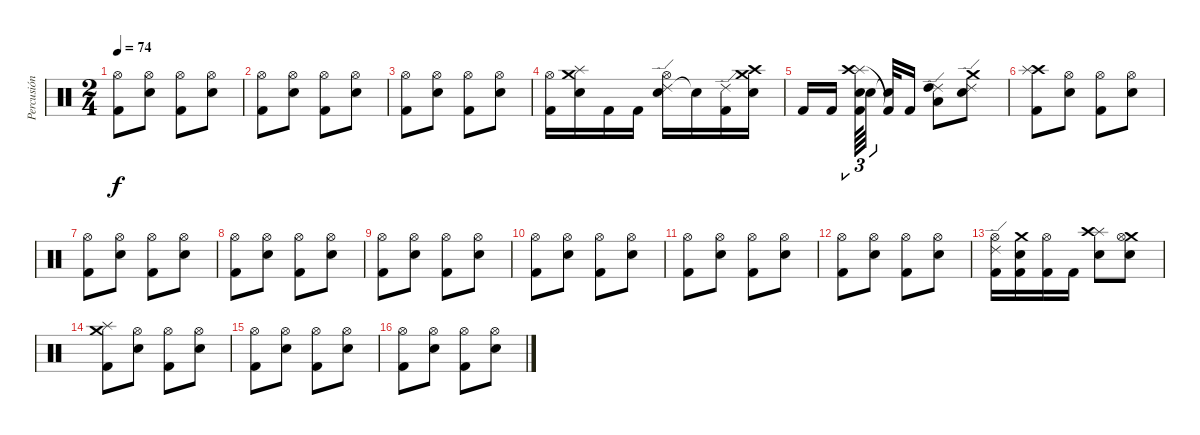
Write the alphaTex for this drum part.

\track ("Percusión" "Percusión") {instrument percussion}
\staff {score}
\articulation defaults
\ts (2 4)
\tempo 74
\clef neutral
\ks c
("Hi-Hat (open)" "Kick (hit) 2").8{dy f} ("Hi-Hat (open)" "Electric Snare (hit)").8 ("Hi-Hat (open)" "Kick (hit) 2").8 ("Hi-Hat (open)" "Electric Snare (hit)").8 |
("Hi-Hat (open)" "Kick (hit) 2").8 ("Hi-Hat (open)" "Electric Snare (hit)").8 ("Hi-Hat (open)" "Kick (hit) 2").8 ("Hi-Hat (open)" "Electric Snare (hit)").8 |
("Hi-Hat (open)" "Kick (hit) 2").8 ("Hi-Hat (open)" "Electric Snare (hit)").8 ("Hi-Hat (open)" "Kick (hit) 2").8 ("Hi-Hat (open)" "Electric Snare (hit)").8 |
("Hi-Hat (open)" "Kick (hit) 2").16 ("Crash medium (hit)" "Splash (hit)" "Electric Snare (hit)").16 "Kick (hit) 2".16 "Kick (hit) 2".16 ("Ride (edge) 2" "Hi-Hat (open)" "Electric Snare (hit)").16 "Snare (hit)"{t}.16 ("Ride (edge) 2" "Kick (hit) 2").16 ("Crash medium (hit)" "Crash high (hit)" "Electric Snare (hit)").16 |
"Kick (hit) 2".16 "Kick (hit) 2".16{beam splitsecondary} ("Splash (hit)" "Crash high (hit)" "Electric Snare (hit)" "Kick (hit) 2").64{tu (3 2)} "Electric Snare (hit)".32{tu (3 2) beam splitsecondary} ("Electric Snare (hit)"{t} "Kick (hit) 2"{t}).32 "Kick (hit) 2".16 ("Ride (edge) 2" "Low Tom (hit)" "High Tom (hit)").8 ("Ride (edge) 2" "Crash medium (hit)" "Electric Snare (hit)").8 |
("Crash high (hit)" "Splash (hit)" "Kick (hit) 2").8 ("Hi-Hat (open)" "Electric Snare (hit)").8 ("Hi-Hat (open)" "Kick (hit) 2").8 ("Hi-Hat (open)" "Electric Snare (hit)").8 |
("Hi-Hat (open)" "Kick (hit) 2").8 ("Hi-Hat (open)" "Electric Snare (hit)").8 ("Hi-Hat (open)" "Kick (hit) 2").8 ("Hi-Hat (open)" "Electric Snare (hit)").8 |
("Hi-Hat (open)" "Kick (hit) 2").8 ("Hi-Hat (open)" "Electric Snare (hit)").8 ("Hi-Hat (open)" "Kick (hit) 2").8 ("Hi-Hat (open)" "Electric Snare (hit)").8 |
("Hi-Hat (open)" "Kick (hit) 2").8 ("Hi-Hat (open)" "Electric Snare (hit)").8 ("Hi-Hat (open)" "Kick (hit) 2").8 ("Hi-Hat (open)" "Electric Snare (hit)").8 |
("Hi-Hat (open)" "Kick (hit) 2").8 ("Hi-Hat (open)" "Electric Snare (hit)").8 ("Hi-Hat (open)" "Kick (hit) 2").8 ("Hi-Hat (open)" "Electric Snare (hit)").8 |
("Hi-Hat (open)" "Kick (hit) 2").8 ("Hi-Hat (open)" "Electric Snare (hit)").8 ("Hi-Hat (open)" "Kick (hit) 2").8 ("Hi-Hat (open)" "Electric Snare (hit)").8 |
("Hi-Hat (open)" "Kick (hit) 2").8 ("Hi-Hat (open)" "Electric Snare (hit)").8 ("Hi-Hat (open)" "Kick (hit) 2").8 ("Hi-Hat (open)" "Electric Snare (hit)").8 |
("Ride (edge) 2" "Hi-Hat (open)" "Kick (hit) 2").16 ("Crash medium (hit)" "Electric Snare (hit)" "Kick (hit) 2").16 ("Hi-Hat (open)" "Kick (hit) 2").16 "Kick (hit) 2".16 ("Splash (hit)" "Crash high (hit)" "Electric Snare (hit)").8 ("Crash medium (hit)" "Hi-Hat (open)" "Electric Snare (hit)").8 |
("Crash medium (hit)" "Splash (hit)" "Kick (hit) 2").8 ("Hi-Hat (open)" "Electric Snare (hit)").8 ("Hi-Hat (open)" "Kick (hit) 2").8 ("Hi-Hat (open)" "Electric Snare (hit)").8 |
("Hi-Hat (open)" "Kick (hit) 2").8 ("Hi-Hat (open)" "Electric Snare (hit)").8 ("Hi-Hat (open)" "Kick (hit) 2").8 ("Hi-Hat (open)" "Electric Snare (hit)").8 |
("Hi-Hat (open)" "Kick (hit) 2").8 ("Hi-Hat (open)" "Electric Snare (hit)").8 ("Hi-Hat (open)" "Kick (hit) 2").8 ("Hi-Hat (open)" "Electric Snare (hit)").8
